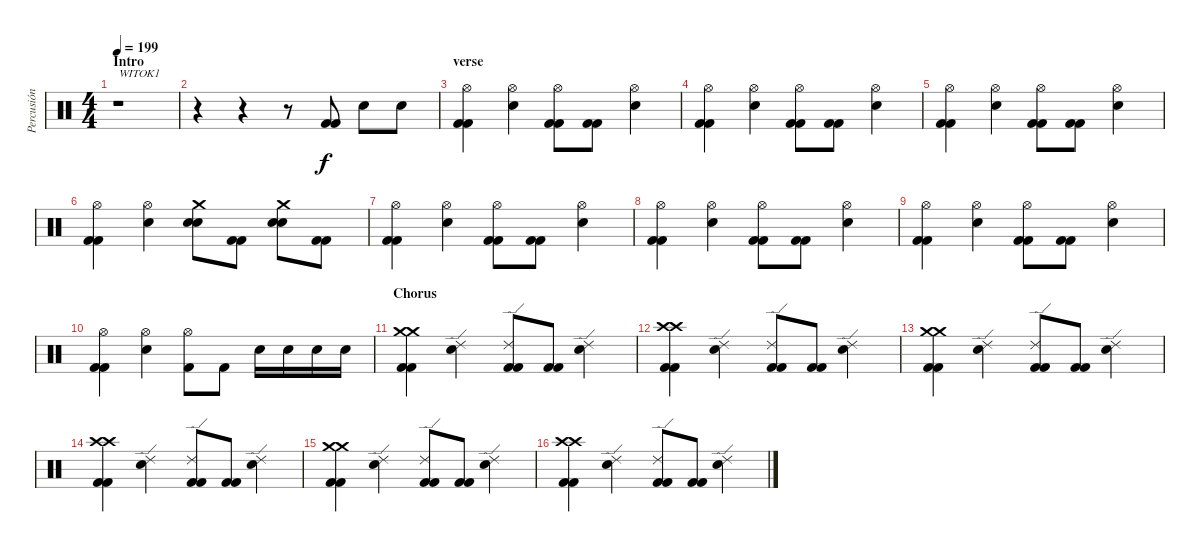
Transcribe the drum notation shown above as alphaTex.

\track ("Percusión" "Percusión") {instrument percussion}
\staff {score}
\articulation defaults
\ts (4 4)
\section ("" "Intro")
\tempo 199
\clef neutral
\ks c
r.1{txt "WITOK1" dy f} |
r.4 r.4 r.8 ("Kick (hit) 2" "Kick (hit) 2").8 "Electric Snare (hit)".8 "Electric Snare (hit)".8 |
\section ("" "verse")
("Hi-Hat (open)" "Kick (hit) 2" "Kick (hit) 2").4 ("Hi-Hat (open)" "Electric Snare (hit)").4 ("Hi-Hat (open)" "Kick (hit) 2" "Kick (hit) 2").8 ("Kick (hit) 2" "Kick (hit) 2").8 ("Hi-Hat (open)" "Electric Snare (hit)").4 |
("Hi-Hat (open)" "Kick (hit) 2" "Kick (hit) 2").4 ("Hi-Hat (open)" "Electric Snare (hit)").4 ("Hi-Hat (open)" "Kick (hit) 2" "Kick (hit) 2").8 ("Kick (hit) 2" "Kick (hit) 2").8 ("Hi-Hat (open)" "Electric Snare (hit)").4 |
("Hi-Hat (open)" "Kick (hit) 2" "Kick (hit) 2").4 ("Hi-Hat (open)" "Electric Snare (hit)").4 ("Hi-Hat (open)" "Kick (hit) 2" "Kick (hit) 2").8 ("Kick (hit) 2" "Kick (hit) 2").8 ("Hi-Hat (open)" "Electric Snare (hit)").4 |
("Hi-Hat (open)" "Kick (hit) 2" "Kick (hit) 2").4 ("Hi-Hat (open)" "Electric Snare (hit)").4 ("Crash medium (hit)" "Electric Snare (hit)" "Electric Snare (hit)").8 ("Kick (hit) 2" "Kick (hit) 2").8 ("Crash medium (hit)" "Electric Snare (hit)" "Electric Snare (hit)").8 ("Kick (hit) 2" "Kick (hit) 2").8 |
("Hi-Hat (open)" "Kick (hit) 2" "Kick (hit) 2").4 ("Hi-Hat (open)" "Electric Snare (hit)").4 ("Hi-Hat (open)" "Kick (hit) 2" "Kick (hit) 2").8 ("Kick (hit) 2" "Kick (hit) 2").8 ("Hi-Hat (open)" "Electric Snare (hit)").4 |
("Hi-Hat (open)" "Kick (hit) 2" "Kick (hit) 2").4 ("Hi-Hat (open)" "Electric Snare (hit)").4 ("Hi-Hat (open)" "Kick (hit) 2" "Kick (hit) 2").8 ("Kick (hit) 2" "Kick (hit) 2").8 ("Hi-Hat (open)" "Electric Snare (hit)").4 |
("Hi-Hat (open)" "Kick (hit) 2" "Kick (hit) 2").4 ("Hi-Hat (open)" "Electric Snare (hit)").4 ("Hi-Hat (open)" "Kick (hit) 2" "Kick (hit) 2").8 ("Kick (hit) 2" "Kick (hit) 2").8 ("Hi-Hat (open)" "Electric Snare (hit)").4 |
("Hi-Hat (open)" "Kick (hit) 2" "Kick (hit) 2").4 ("Hi-Hat (open)" "Electric Snare (hit)").4 ("Hi-Hat (open)" "Kick (hit) 2").8 "Kick (hit) 2".8 "Electric Snare (hit)".16 "Electric Snare (hit)".16 "Electric Snare (hit)".16 "Electric Snare (hit)".16 |
\section ("" "Chorus")
("Crash medium (hit)" "Kick (hit) 2" "Kick (hit) 2" "Crash medium (hit)").4 ("Ride (edge) 2" "Electric Snare (hit)").4 ("Ride (edge) 2" "Kick (hit) 2" "Kick (hit) 2").8 ("Kick (hit) 2" "Kick (hit) 2").8 ("Ride (edge) 2" "Electric Snare (hit)").4 |
("Crash high (hit)" "Kick (hit) 2" "Kick (hit) 2" "Crash high (hit)").4 ("Ride (edge) 2" "Electric Snare (hit)").4 ("Ride (edge) 2" "Kick (hit) 2" "Kick (hit) 2").8 ("Kick (hit) 2" "Kick (hit) 2").8 ("Ride (edge) 2" "Electric Snare (hit)").4 |
("Crash medium (hit)" "Kick (hit) 2" "Kick (hit) 2" "Crash medium (hit)").4 ("Ride (edge) 2" "Electric Snare (hit)").4 ("Ride (edge) 2" "Kick (hit) 2" "Kick (hit) 2").8 ("Kick (hit) 2" "Kick (hit) 2").8 ("Ride (edge) 2" "Electric Snare (hit)").4 |
("Crash high (hit)" "Kick (hit) 2" "Kick (hit) 2" "Crash high (hit)").4 ("Ride (edge) 2" "Electric Snare (hit)").4 ("Ride (edge) 2" "Kick (hit) 2" "Kick (hit) 2").8 ("Kick (hit) 2" "Kick (hit) 2").8 ("Ride (edge) 2" "Electric Snare (hit)").4 |
("Crash medium (hit)" "Kick (hit) 2" "Kick (hit) 2" "Crash medium (hit)").4 ("Ride (edge) 2" "Electric Snare (hit)").4 ("Ride (edge) 2" "Kick (hit) 2" "Kick (hit) 2").8 ("Kick (hit) 2" "Kick (hit) 2").8 ("Ride (edge) 2" "Electric Snare (hit)").4 |
("Crash high (hit)" "Kick (hit) 2" "Kick (hit) 2" "Crash high (hit)").4 ("Ride (edge) 2" "Electric Snare (hit)").4 ("Ride (edge) 2" "Kick (hit) 2" "Kick (hit) 2").8 ("Kick (hit) 2" "Kick (hit) 2").8 ("Ride (edge) 2" "Electric Snare (hit)").4
